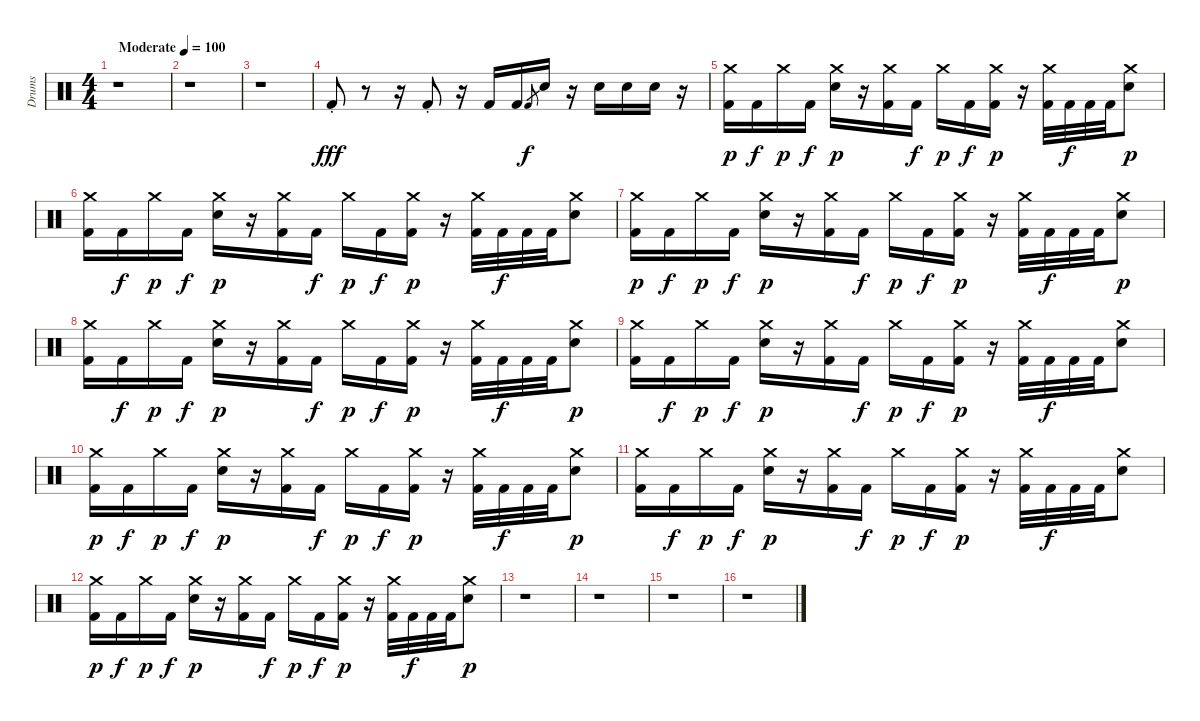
\track ("Drums" "Drums") {instrument percussion}
\staff {score}
\articulation defaults
\ts (4 4)
\tempo (100 "Moderate")
\clef neutral
\ks c
r.1{dy fff} |
r.1 |
r.1 |
"Kick (hit) 2"{st}.8 r.8 r.16 "Kick (hit) 2"{st}.8 r.16 "Kick (hit) 2".16 "Kick (hit) 2".16 "Kick (hit) 2".8{gr dy f} "Snare (hit) 2".16 r.16 "Snare (hit) 2".16 "Snare (hit) 2".16 "Snare (hit) 2".16 r.16 |
("Crash medium (hit)" "Kick (hit) 2").16{dy p} "Kick (hit) 2".16{dy f} "Crash medium (hit)".16{dy p} "Kick (hit) 2".16{dy f} ("Crash medium (hit)" "Snare (hit) 2").16{dy p} r.16 ("Crash medium (hit)" "Kick (hit) 2").16 "Kick (hit) 2".16{dy f} "Crash medium (hit)".16{dy p} "Kick (hit) 2".16{dy f} ("Crash medium (hit)" "Kick (hit) 2").16{dy p} r.16 ("Crash medium (hit)" "Kick (hit) 2").32 "Kick (hit) 2".32{dy f} "Kick (hit) 2".32 "Kick (hit) 2".32 ("Crash medium (hit)" "Snare (hit) 2").8{dy p} |
("Crash medium (hit)" "Kick (hit) 2").16 "Kick (hit) 2".16{dy f} "Crash medium (hit)".16{dy p} "Kick (hit) 2".16{dy f} ("Crash medium (hit)" "Snare (hit) 2").16{dy p} r.16 ("Crash medium (hit)" "Kick (hit) 2").16 "Kick (hit) 2".16{dy f} "Crash medium (hit)".16{dy p} "Kick (hit) 2".16{dy f} ("Crash medium (hit)" "Kick (hit) 2").16{dy p} r.16 ("Crash medium (hit)" "Kick (hit) 2").32 "Kick (hit) 2".32{dy f} "Kick (hit) 2".32 "Kick (hit) 2".32 ("Crash medium (hit)" "Snare (hit) 2").8 |
("Crash medium (hit)" "Kick (hit) 2").16{dy p} "Kick (hit) 2".16{dy f} "Crash medium (hit)".16{dy p} "Kick (hit) 2".16{dy f} ("Crash medium (hit)" "Snare (hit) 2").16{dy p} r.16 ("Crash medium (hit)" "Kick (hit) 2").16 "Kick (hit) 2".16{dy f} "Crash medium (hit)".16{dy p} "Kick (hit) 2".16{dy f} ("Crash medium (hit)" "Kick (hit) 2").16{dy p} r.16 ("Crash medium (hit)" "Kick (hit) 2").32 "Kick (hit) 2".32{dy f} "Kick (hit) 2".32 "Kick (hit) 2".32 ("Crash medium (hit)" "Snare (hit) 2").8{dy p} |
("Crash medium (hit)" "Kick (hit) 2").16 "Kick (hit) 2".16{dy f} "Crash medium (hit)".16{dy p} "Kick (hit) 2".16{dy f} ("Crash medium (hit)" "Snare (hit) 2").16{dy p} r.16 ("Crash medium (hit)" "Kick (hit) 2").16 "Kick (hit) 2".16{dy f} "Crash medium (hit)".16{dy p} "Kick (hit) 2".16{dy f} ("Crash medium (hit)" "Kick (hit) 2").16{dy p} r.16 ("Crash medium (hit)" "Kick (hit) 2").32 "Kick (hit) 2".32{dy f} "Kick (hit) 2".32 "Kick (hit) 2".32 ("Crash medium (hit)" "Snare (hit) 2").8{dy p} |
("Crash medium (hit)" "Kick (hit) 2").16 "Kick (hit) 2".16{dy f} "Crash medium (hit)".16{dy p} "Kick (hit) 2".16{dy f} ("Crash medium (hit)" "Snare (hit) 2").16{dy p} r.16 ("Crash medium (hit)" "Kick (hit) 2").16 "Kick (hit) 2".16{dy f} "Crash medium (hit)".16{dy p} "Kick (hit) 2".16{dy f} ("Crash medium (hit)" "Kick (hit) 2").16{dy p} r.16 ("Crash medium (hit)" "Kick (hit) 2").32 "Kick (hit) 2".32{dy f} "Kick (hit) 2".32 "Kick (hit) 2".32 ("Crash medium (hit)" "Snare (hit) 2").8 |
("Crash medium (hit)" "Kick (hit) 2").16{dy p} "Kick (hit) 2".16{dy f} "Crash medium (hit)".16{dy p} "Kick (hit) 2".16{dy f} ("Crash medium (hit)" "Snare (hit) 2").16{dy p} r.16 ("Crash medium (hit)" "Kick (hit) 2").16 "Kick (hit) 2".16{dy f} "Crash medium (hit)".16{dy p} "Kick (hit) 2".16{dy f} ("Crash medium (hit)" "Kick (hit) 2").16{dy p} r.16 ("Crash medium (hit)" "Kick (hit) 2").32 "Kick (hit) 2".32{dy f} "Kick (hit) 2".32 "Kick (hit) 2".32 ("Crash medium (hit)" "Snare (hit) 2").8{dy p} |
("Crash medium (hit)" "Kick (hit) 2").16 "Kick (hit) 2".16{dy f} "Crash medium (hit)".16{dy p} "Kick (hit) 2".16{dy f} ("Crash medium (hit)" "Snare (hit) 2").16{dy p} r.16 ("Crash medium (hit)" "Kick (hit) 2").16 "Kick (hit) 2".16{dy f} "Crash medium (hit)".16{dy p} "Kick (hit) 2".16{dy f} ("Crash medium (hit)" "Kick (hit) 2").16{dy p} r.16 ("Crash medium (hit)" "Kick (hit) 2").32 "Kick (hit) 2".32{dy f} "Kick (hit) 2".32 "Kick (hit) 2".32 ("Crash medium (hit)" "Snare (hit) 2").8 |
("Crash medium (hit)" "Kick (hit) 2").16{dy p} "Kick (hit) 2".16{dy f} "Crash medium (hit)".16{dy p} "Kick (hit) 2".16{dy f} ("Crash medium (hit)" "Snare (hit) 2").16{dy p} r.16 ("Crash medium (hit)" "Kick (hit) 2").16 "Kick (hit) 2".16{dy f} "Crash medium (hit)".16{dy p} "Kick (hit) 2".16{dy f} ("Crash medium (hit)" "Kick (hit) 2").16{dy p} r.16 ("Crash medium (hit)" "Kick (hit) 2").32 "Kick (hit) 2".32{dy f} "Kick (hit) 2".32 "Kick (hit) 2".32 ("Crash medium (hit)" "Snare (hit) 2").8{dy p} |
r.1 |
r.1 |
r.1 |
r.1
